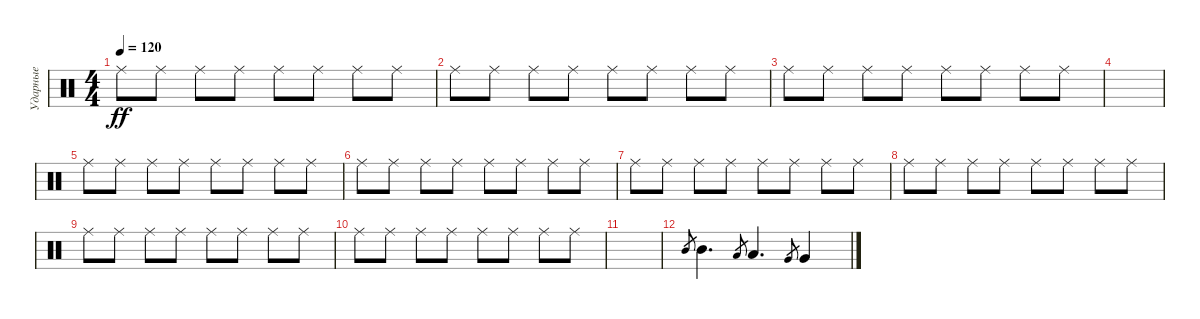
\track ("Ударные" "Ударные") {instrument percussion}
\staff {score}
\articulation defaults
\ts (4 4)
\tempo 120
\clef neutral
\ks c "Ride (middle)".8{dy ff} "Ride (middle)".8 "Ride (middle)".8 "Ride (middle)".8 "Ride (middle)".8 "Ride (middle)".8 "Ride (middle)".8 "Ride (middle)".8
|
"Ride (middle)".8 "Ride (middle)".8 "Ride (middle)".8 "Ride (middle)".8 "Ride (middle)".8 "Ride (middle)".8 "Ride (middle)".8 "Ride (middle)".8 |
"Ride (middle)".8 "Ride (middle)".8 "Ride (middle)".8 "Ride (middle)".8 "Ride (middle)".8 "Ride (middle)".8 "Ride (middle)".8 "Ride (middle)".8 |
|
"Ride (middle)".8 "Ride (middle)".8 "Ride (middle)".8 "Ride (middle)".8 "Ride (middle)".8 "Ride (middle)".8 "Ride (middle)".8 "Ride (middle)".8 |
"Ride (middle)".8 "Ride (middle)".8 "Ride (middle)".8 "Ride (middle)".8 "Ride (middle)".8 "Ride (middle)".8 "Ride (middle)".8 "Ride (middle)".8 |
"Ride (middle)".8 "Ride (middle)".8 "Ride (middle)".8 "Ride (middle)".8 "Ride (middle)".8 "Ride (middle)".8 "Ride (middle)".8 "Ride (middle)".8 |
"Ride (middle)".8 "Ride (middle)".8 "Ride (middle)".8 "Ride (middle)".8 "Ride (middle)".8 "Ride (middle)".8 "Ride (middle)".8 "Ride (middle)".8 |
"Ride (middle)".8 "Ride (middle)".8 "Ride (middle)".8 "Ride (middle)".8 "Ride (middle)".8 "Ride (middle)".8 "Ride (middle)".8 "Ride (middle)".8 |
"Ride (middle)".8 "Ride (middle)".8 "Ride (middle)".8 "Ride (middle)".8 "Ride (middle)".8 "Ride (middle)".8 "Ride (middle)".8 "Ride (middle)".8 |
|
"Mid Tom (hit)".8{gr} "Mid Tom (hit)".4{d} "Low Tom (hit)".8{gr} "Low Tom (hit)".4{d} "Very Low Tom (hit)".8{gr} "Very Low Tom (hit)".4
